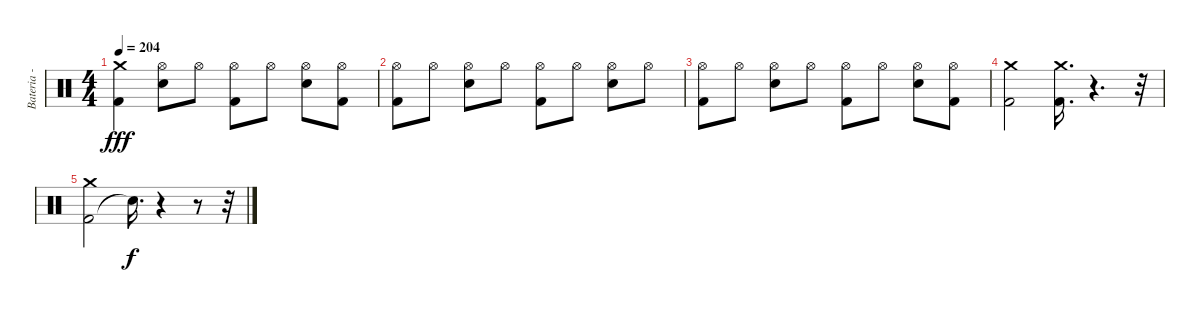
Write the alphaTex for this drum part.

\track ("Bateria - Larzon" "Bateria - ") {instrument percussion}
\staff {score}
\articulation defaults
\ts (4 4)
\tempo 204
\clef neutral
\ks c
("Crash medium (hit)" "Kick (hit) 2").4{dy fff} ("Hi-Hat (open)" "Electric Snare (hit)").8 "Hi-Hat (open)".8 ("Kick (hit) 2" "Hi-Hat (open)").8 "Hi-Hat (open)".8 ("Electric Snare (hit)" "Hi-Hat (open)").8 ("Kick (hit) 2" "Hi-Hat (open)").8 |
("Kick (hit) 2" "Hi-Hat (open)").8 "Hi-Hat (open)".8 ("Electric Snare (hit)" "Hi-Hat (open)").8 "Hi-Hat (open)".8 ("Kick (hit) 2" "Hi-Hat (open)").8 "Hi-Hat (open)".8 ("Electric Snare (hit)" "Hi-Hat (open)").8 "Hi-Hat (open)".8 |
("Kick (hit) 2" "Hi-Hat (open)").8 "Hi-Hat (open)".8 ("Electric Snare (hit)" "Hi-Hat (open)").8 "Hi-Hat (open)".8 ("Kick (hit) 2" "Hi-Hat (open)").8 "Hi-Hat (open)".8 ("Electric Snare (hit)" "Hi-Hat (open)").8 ("Kick (hit) 2" "Hi-Hat (open)").8 |
("Kick (hit) 2" "Crash medium (hit)").2 ("Kick (hit) 2" "Crash medium (hit)").16{d} r.4{d} r.32 |
("Kick (hit) 2" "Crash medium (hit)").2 "Snare (hit)"{t}.16{d dy f} r.4 r.8 r.32
